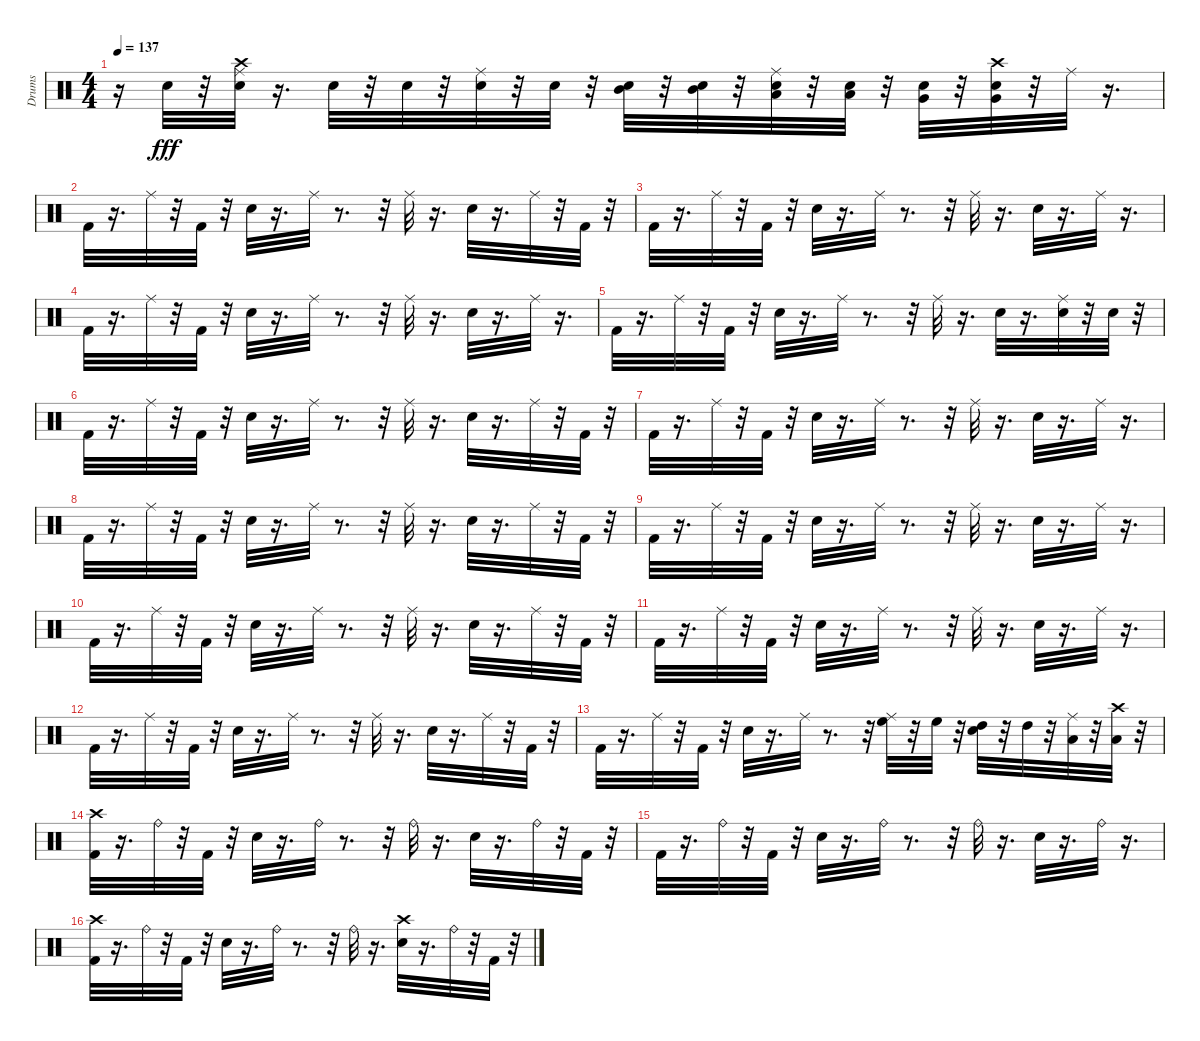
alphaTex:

\track ("Drums" "Drums") {instrument percussion}
\staff {score}
\articulation defaults
\ts (4 4)
\tempo 137
\clef neutral
\ks c
r.16{dy fff} "Snare (hit) 2".32 r.32 ("Crash high (hit)" "Snare (hit) 2" "Ride (middle)").32 r.16{d} "Snare (hit) 2".32 r.32 "Snare (hit) 2".32 r.32 ("Snare (hit) 2" "Ride (middle)").32 r.32 "Snare (hit) 2".32 r.32 ("Snare (hit) 2" "Mid Tom (hit)").32 r.32 ("Mid Tom (hit)" "Snare (hit) 2").32 r.32 ("Low Tom (hit)" "Snare (hit) 2" "Ride (middle)").32 r.32 ("Low Tom (hit)" "Snare (hit) 2").32 r.32 ("Very Low Tom (hit)" "Snare (hit) 2").32 r.32 ("Very Low Tom (hit)" "Crash high (hit)" "Snare (hit) 2").32 r.32 "Ride (middle)".32 r.16{d} |
"Kick (hit) 2".32 r.16{d} "Ride (middle)".32 r.32 "Kick (hit) 2".32 r.32 "Snare (hit) 2".32 r.16{d} "Ride (middle)".32 r.8{d} r.32 "Ride (middle)".32 r.16{d} "Snare (hit) 2".32 r.16{d} "Ride (middle)".32 r.32 "Kick (hit) 2".32 r.32 |
"Kick (hit) 2".32 r.16{d} "Ride (middle)".32 r.32 "Kick (hit) 2".32 r.32 "Snare (hit) 2".32 r.16{d} "Ride (middle)".32 r.8{d} r.32 "Ride (middle)".32 r.16{d} "Snare (hit) 2".32 r.16{d} "Ride (middle)".32 r.16{d} |
"Kick (hit) 2".32 r.16{d} "Ride (middle)".32 r.32 "Kick (hit) 2".32 r.32 "Snare (hit) 2".32 r.16{d} "Ride (middle)".32 r.8{d} r.32 "Ride (middle)".32 r.16{d} "Snare (hit) 2".32 r.16{d} "Ride (middle)".32 r.16{d} |
"Kick (hit) 2".32 r.16{d} "Ride (middle)".32 r.32 "Kick (hit) 2".32 r.32 "Snare (hit) 2".32 r.16{d} "Ride (middle)".32 r.8{d} r.32 "Ride (middle)".32 r.16{d} "Snare (hit) 2".32 r.16{d} ("Snare (hit) 2" "Ride (middle)").32 r.32 "Snare (hit) 2".32 r.32 |
"Kick (hit) 2".32 r.16{d} "Ride (middle)".32 r.32 "Kick (hit) 2".32 r.32 "Snare (hit) 2".32 r.16{d} "Ride (middle)".32 r.8{d} r.32 "Ride (middle)".32 r.16{d} "Snare (hit) 2".32 r.16{d} "Ride (middle)".32 r.32 "Kick (hit) 2".32 r.32 |
"Kick (hit) 2".32 r.16{d} "Ride (middle)".32 r.32 "Kick (hit) 2".32 r.32 "Snare (hit) 2".32 r.16{d} "Ride (middle)".32 r.8{d} r.32 "Ride (middle)".32 r.16{d} "Snare (hit) 2".32 r.16{d} "Ride (middle)".32 r.16{d} |
"Kick (hit) 2".32 r.16{d} "Ride (middle)".32 r.32 "Kick (hit) 2".32 r.32 "Snare (hit) 2".32 r.16{d} "Ride (middle)".32 r.8{d} r.32 "Ride (middle)".32 r.16{d} "Snare (hit) 2".32 r.16{d} "Ride (middle)".32 r.32 "Kick (hit) 2".32 r.32 |
"Kick (hit) 2".32 r.16{d} "Ride (middle)".32 r.32 "Kick (hit) 2".32 r.32 "Snare (hit) 2".32 r.16{d} "Ride (middle)".32 r.8{d} r.32 "Ride (middle)".32 r.16{d} "Snare (hit) 2".32 r.16{d} "Ride (middle)".32 r.16{d} |
"Kick (hit) 2".32 r.16{d} "Ride (middle)".32 r.32 "Kick (hit) 2".32 r.32 "Snare (hit) 2".32 r.16{d} "Ride (middle)".32 r.8{d} r.32 "Ride (middle)".32 r.16{d} "Snare (hit) 2".32 r.16{d} "Ride (middle)".32 r.32 "Kick (hit) 2".32 r.32 |
"Kick (hit) 2".32 r.16{d} "Ride (middle)".32 r.32 "Kick (hit) 2".32 r.32 "Snare (hit) 2".32 r.16{d} "Ride (middle)".32 r.8{d} r.32 "Ride (middle)".32 r.16{d} "Snare (hit) 2".32 r.16{d} "Ride (middle)".32 r.16{d} |
"Kick (hit) 2".32 r.16{d} "Ride (middle)".32 r.32 "Kick (hit) 2".32 r.32 "Snare (hit) 2".32 r.16{d} "Ride (middle)".32 r.8{d} r.32 "Ride (middle)".32 r.16{d} "Snare (hit) 2".32 r.16{d} "Ride (middle)".32 r.32 "Kick (hit) 2".32 r.32 |
"Kick (hit) 2".32 r.16{d} "Ride (middle)".32 r.32 "Kick (hit) 2".32 r.32 "Snare (hit) 2".32 r.16{d} "Ride (middle)".32 r.8{d} r.32 ("Ride (middle)" "High Floor Tom (hit)").32 r.32 "High Floor Tom (hit)".32 r.32 ("High Tom (hit)" "Snare (hit) 2").32 r.32 "High Tom (hit)".32 r.32 ("Low Tom (hit)" "Ride (middle)").32 r.32 ("Crash high (hit)" "Low Tom (hit)").32 r.32 |
("Kick (hit) 2" "Crash high (hit)").32 r.16{d} "Ride (bell)".32 r.32 "Kick (hit) 2".32 r.32 "Snare (hit) 2".32 r.16{d} "Ride (bell)".32 r.8{d} r.32 "Ride (bell)".32 r.16{d} "Snare (hit) 2".32 r.16{d} "Ride (bell)".32 r.32 "Kick (hit) 2".32 r.32 |
"Kick (hit) 2".32 r.16{d} "Ride (bell)".32 r.32 "Kick (hit) 2".32 r.32 "Snare (hit) 2".32 r.16{d} "Ride (bell)".32 r.8{d} r.32 "Ride (bell)".32 r.16{d} "Snare (hit) 2".32 r.16{d} "Ride (bell)".32 r.16{d} |
("Crash high (hit)" "Kick (hit) 2").32 r.16{d} "Ride (bell)".32 r.32 "Kick (hit) 2".32 r.32 "Snare (hit) 2".32 r.16{d} "Ride (bell)".32 r.8{d} r.32 "Ride (bell)".32 r.16{d} ("Snare (hit) 2" "Crash high (hit)").32 r.16{d} "Ride (bell)".32 r.32 "Kick (hit) 2".32 r.32
